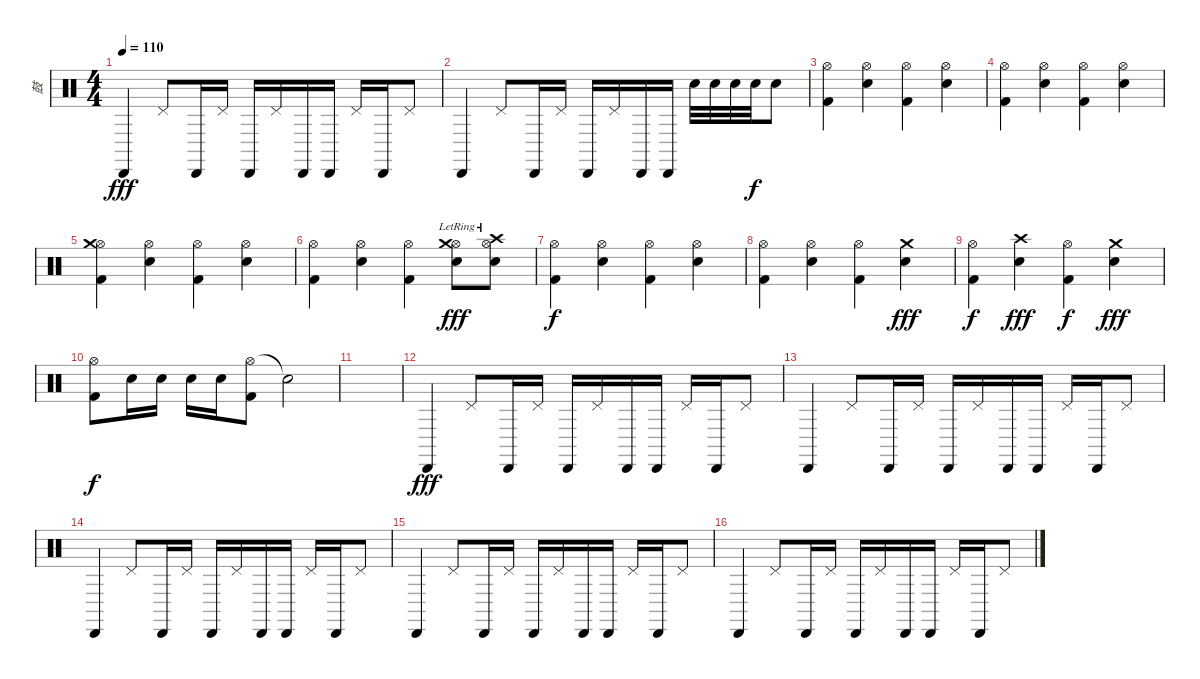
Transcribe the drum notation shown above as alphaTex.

\track ("鼓" "鼓") {instrument percussion}
\staff {score}
\articulation defaults
\ts (4 4)
\tempo 110
\clef neutral
\ks c "Cabasa (hit)".4{dy fff} "Pedal Hi-Hat (hit)".8 "Cabasa (hit)".16 "Pedal Hi-Hat (hit)".16 "Cabasa (hit)".16 "Pedal Hi-Hat (hit)".16 "Cabasa (hit)".16 "Cabasa (hit)".16 "Pedal Hi-Hat (hit)".16 "Cabasa (hit)".16 "Pedal Hi-Hat (hit)".8
|
"Cabasa (hit)".4 "Pedal Hi-Hat (hit)".8 "Cabasa (hit)".16 "Pedal Hi-Hat (hit)".16 "Cabasa (hit)".16 "Pedal Hi-Hat (hit)".16 "Cabasa (hit)".16 "Cabasa (hit)".16 "Electric Snare (hit)".32 "Electric Snare (hit)".32 "Electric Snare (hit)".32 "Electric Snare (hit)".32{dy f} "Electric Snare (hit)".8 |
("Hi-Hat (open)" "Kick (hit) 2").4 ("Hi-Hat (open)" "Electric Snare (hit)").4 ("Hi-Hat (open)" "Kick (hit) 2").4 ("Hi-Hat (open)" "Electric Snare (hit)").4 |
("Hi-Hat (open)" "Kick (hit) 2").4 ("Hi-Hat (open)" "Electric Snare (hit)").4 ("Hi-Hat (open)" "Kick (hit) 2").4 ("Hi-Hat (open)" "Electric Snare (hit)").4 |
("Hi-Hat (open)" "Crash medium (hit)" "Kick (hit) 2").4 ("Hi-Hat (open)" "Electric Snare (hit)").4 ("Hi-Hat (open)" "Kick (hit) 2").4 ("Hi-Hat (open)" "Electric Snare (hit)").4 |
("Hi-Hat (open)" "Kick (hit) 2").4 ("Hi-Hat (open)" "Electric Snare (hit)").4 ("Hi-Hat (open)" "Kick (hit) 2").4 ("Hi-Hat (open)" "Crash medium (hit)"{lr} "Electric Snare (hit)").8{dy fff} ("Hi-Hat (open)" "Crash high (hit)"{lr} "Electric Snare (hit)").8 |
("Hi-Hat (open)" "Kick (hit) 2").4{dy f} ("Hi-Hat (open)" "Electric Snare (hit)").4 ("Hi-Hat (open)" "Kick (hit) 2").4 ("Hi-Hat (open)" "Electric Snare (hit)").4 |
("Hi-Hat (open)" "Kick (hit) 2").4 ("Hi-Hat (open)" "Electric Snare (hit)").4 ("Hi-Hat (open)" "Kick (hit) 2").4 ("Crash medium (hit)" "Electric Snare (hit)").4{dy fff} |
("Hi-Hat (open)" "Kick (hit) 2").4{dy f} ("Crash high (hit)" "Electric Snare (hit)").4{dy fff} ("Hi-Hat (open)" "Kick (hit) 2").4{dy f} ("Crash medium (hit)" "Electric Snare (hit)").4{dy fff} |
("Hi-Hat (open)" "Kick (hit) 2").8{dy f} "Electric Snare (hit)".16 "Electric Snare (hit)".16 "Electric Snare (hit)".16 "Electric Snare (hit)".16 ("Hi-Hat (open)" "Kick (hit) 2").8 "Snare (hit)"{t}.2 |
|
"Cabasa (hit)".4{dy fff} "Pedal Hi-Hat (hit)".8 "Cabasa (hit)".16 "Pedal Hi-Hat (hit)".16 "Cabasa (hit)".16 "Pedal Hi-Hat (hit)".16 "Cabasa (hit)".16 "Cabasa (hit)".16 "Pedal Hi-Hat (hit)".16 "Cabasa (hit)".16 "Pedal Hi-Hat (hit)".8 |
"Cabasa (hit)".4 "Pedal Hi-Hat (hit)".8 "Cabasa (hit)".16 "Pedal Hi-Hat (hit)".16 "Cabasa (hit)".16 "Pedal Hi-Hat (hit)".16 "Cabasa (hit)".16 "Cabasa (hit)".16 "Pedal Hi-Hat (hit)".16 "Cabasa (hit)".16 "Pedal Hi-Hat (hit)".8 |
"Cabasa (hit)".4 "Pedal Hi-Hat (hit)".8 "Cabasa (hit)".16 "Pedal Hi-Hat (hit)".16 "Cabasa (hit)".16 "Pedal Hi-Hat (hit)".16 "Cabasa (hit)".16 "Cabasa (hit)".16 "Pedal Hi-Hat (hit)".16 "Cabasa (hit)".16 "Pedal Hi-Hat (hit)".8 |
"Cabasa (hit)".4 "Pedal Hi-Hat (hit)".8 "Cabasa (hit)".16 "Pedal Hi-Hat (hit)".16 "Cabasa (hit)".16 "Pedal Hi-Hat (hit)".16 "Cabasa (hit)".16 "Cabasa (hit)".16 "Pedal Hi-Hat (hit)".16 "Cabasa (hit)".16 "Pedal Hi-Hat (hit)".8 |
"Cabasa (hit)".4 "Pedal Hi-Hat (hit)".8 "Cabasa (hit)".16 "Pedal Hi-Hat (hit)".16 "Cabasa (hit)".16 "Pedal Hi-Hat (hit)".16 "Cabasa (hit)".16 "Cabasa (hit)".16 "Pedal Hi-Hat (hit)".16 "Cabasa (hit)".16 "Pedal Hi-Hat (hit)".8
